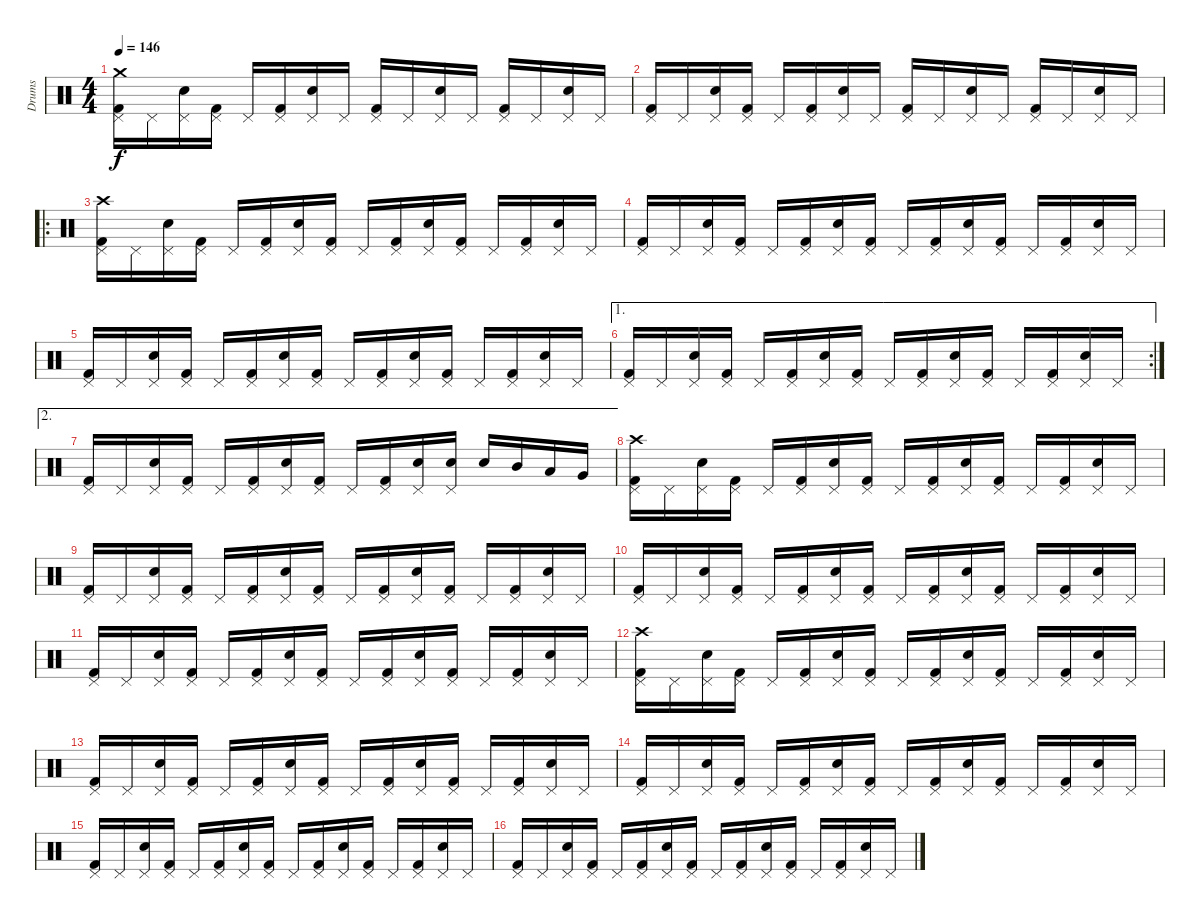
\track ("Drums" "Drums") {instrument percussion}
\staff {score}
\articulation defaults
\ts (4 4)
\tempo 146
\clef neutral
\ks c
("Kick (hit) 2" "Pedal Hi-Hat (hit)" "Crash medium (hit)").16{dy f} "Pedal Hi-Hat (hit)".16 ("Snare (hit) 2" "Pedal Hi-Hat (hit)").16 ("Kick (hit) 2" "Pedal Hi-Hat (hit)").16 "Pedal Hi-Hat (hit)".16 ("Kick (hit) 2" "Pedal Hi-Hat (hit)").16 ("Snare (hit) 2" "Pedal Hi-Hat (hit)").16 "Pedal Hi-Hat (hit)".16 ("Kick (hit) 2" "Pedal Hi-Hat (hit)").16 "Pedal Hi-Hat (hit)".16 ("Snare (hit) 2" "Pedal Hi-Hat (hit)").16 "Pedal Hi-Hat (hit)".16 ("Kick (hit) 2" "Pedal Hi-Hat (hit)").16 "Pedal Hi-Hat (hit)".16 ("Snare (hit) 2" "Pedal Hi-Hat (hit)").16 "Pedal Hi-Hat (hit)".16 |
("Kick (hit) 2" "Pedal Hi-Hat (hit)").16 "Pedal Hi-Hat (hit)".16 ("Snare (hit) 2" "Pedal Hi-Hat (hit)").16 ("Kick (hit) 2" "Pedal Hi-Hat (hit)").16 "Pedal Hi-Hat (hit)".16 ("Kick (hit) 2" "Pedal Hi-Hat (hit)").16 ("Snare (hit) 2" "Pedal Hi-Hat (hit)").16 "Pedal Hi-Hat (hit)".16 ("Kick (hit) 2" "Pedal Hi-Hat (hit)").16 "Pedal Hi-Hat (hit)".16 ("Snare (hit) 2" "Pedal Hi-Hat (hit)").16 "Pedal Hi-Hat (hit)".16 ("Kick (hit) 2" "Pedal Hi-Hat (hit)").16 "Pedal Hi-Hat (hit)".16 ("Snare (hit) 2" "Pedal Hi-Hat (hit)").16 "Pedal Hi-Hat (hit)".16 |
\ro
("Kick (hit) 2" "Pedal Hi-Hat (hit)" "Crash high (hit)").16 "Pedal Hi-Hat (hit)".16 ("Snare (hit) 2" "Pedal Hi-Hat (hit)").16 ("Kick (hit) 2" "Pedal Hi-Hat (hit)").16 "Pedal Hi-Hat (hit)".16 ("Kick (hit) 2" "Pedal Hi-Hat (hit)").16 ("Snare (hit) 2" "Pedal Hi-Hat (hit)").16 ("Kick (hit) 2" "Pedal Hi-Hat (hit)").16 "Pedal Hi-Hat (hit)".16 ("Kick (hit) 2" "Pedal Hi-Hat (hit)").16 ("Snare (hit) 2" "Pedal Hi-Hat (hit)").16 ("Kick (hit) 2" "Pedal Hi-Hat (hit)").16 "Pedal Hi-Hat (hit)".16 ("Kick (hit) 2" "Pedal Hi-Hat (hit)").16 ("Snare (hit) 2" "Pedal Hi-Hat (hit)").16 "Pedal Hi-Hat (hit)".16 |
("Kick (hit) 2" "Pedal Hi-Hat (hit)").16 "Pedal Hi-Hat (hit)".16 ("Snare (hit) 2" "Pedal Hi-Hat (hit)").16 ("Kick (hit) 2" "Pedal Hi-Hat (hit)").16 "Pedal Hi-Hat (hit)".16 ("Kick (hit) 2" "Pedal Hi-Hat (hit)").16 ("Snare (hit) 2" "Pedal Hi-Hat (hit)").16 ("Kick (hit) 2" "Pedal Hi-Hat (hit)").16 "Pedal Hi-Hat (hit)".16 ("Kick (hit) 2" "Pedal Hi-Hat (hit)").16 ("Snare (hit) 2" "Pedal Hi-Hat (hit)").16 ("Kick (hit) 2" "Pedal Hi-Hat (hit)").16 "Pedal Hi-Hat (hit)".16 ("Kick (hit) 2" "Pedal Hi-Hat (hit)").16 ("Snare (hit) 2" "Pedal Hi-Hat (hit)").16 "Pedal Hi-Hat (hit)".16 |
("Kick (hit) 2" "Pedal Hi-Hat (hit)").16 "Pedal Hi-Hat (hit)".16 ("Snare (hit) 2" "Pedal Hi-Hat (hit)").16 ("Kick (hit) 2" "Pedal Hi-Hat (hit)").16 "Pedal Hi-Hat (hit)".16 ("Kick (hit) 2" "Pedal Hi-Hat (hit)").16 ("Snare (hit) 2" "Pedal Hi-Hat (hit)").16 ("Kick (hit) 2" "Pedal Hi-Hat (hit)").16 "Pedal Hi-Hat (hit)".16 ("Kick (hit) 2" "Pedal Hi-Hat (hit)").16 ("Snare (hit) 2" "Pedal Hi-Hat (hit)").16 ("Kick (hit) 2" "Pedal Hi-Hat (hit)").16 "Pedal Hi-Hat (hit)".16 ("Kick (hit) 2" "Pedal Hi-Hat (hit)").16 ("Snare (hit) 2" "Pedal Hi-Hat (hit)").16 "Pedal Hi-Hat (hit)".16 |
\ae 1
\rc 2
("Kick (hit) 2" "Pedal Hi-Hat (hit)").16 "Pedal Hi-Hat (hit)".16 ("Snare (hit) 2" "Pedal Hi-Hat (hit)").16 ("Kick (hit) 2" "Pedal Hi-Hat (hit)").16 "Pedal Hi-Hat (hit)".16 ("Kick (hit) 2" "Pedal Hi-Hat (hit)").16 ("Snare (hit) 2" "Pedal Hi-Hat (hit)").16 ("Kick (hit) 2" "Pedal Hi-Hat (hit)").16 "Pedal Hi-Hat (hit)".16 ("Kick (hit) 2" "Pedal Hi-Hat (hit)").16 ("Snare (hit) 2" "Pedal Hi-Hat (hit)").16 ("Kick (hit) 2" "Pedal Hi-Hat (hit)").16 "Pedal Hi-Hat (hit)".16 ("Kick (hit) 2" "Pedal Hi-Hat (hit)").16 ("Snare (hit) 2" "Pedal Hi-Hat (hit)").16 "Pedal Hi-Hat (hit)".16 |
\ae 2
("Kick (hit) 2" "Pedal Hi-Hat (hit)").16 "Pedal Hi-Hat (hit)".16 ("Snare (hit) 2" "Pedal Hi-Hat (hit)").16 ("Kick (hit) 2" "Pedal Hi-Hat (hit)").16 "Pedal Hi-Hat (hit)".16 ("Kick (hit) 2" "Pedal Hi-Hat (hit)").16 ("Snare (hit) 2" "Pedal Hi-Hat (hit)").16 ("Kick (hit) 2" "Pedal Hi-Hat (hit)").16 "Pedal Hi-Hat (hit)".16 ("Kick (hit) 2" "Pedal Hi-Hat (hit)").16 ("Snare (hit) 2" "Pedal Hi-Hat (hit)").16 ("Snare (hit) 2" "Pedal Hi-Hat (hit)").16 "Snare (hit) 2".16 "Mid Tom (hit)".16 "Low Tom (hit)".16 "Very Low Tom (hit)".16 |
("Kick (hit) 2" "Pedal Hi-Hat (hit)" "Crash high (hit)").16 "Pedal Hi-Hat (hit)".16 ("Snare (hit) 2" "Pedal Hi-Hat (hit)").16 ("Kick (hit) 2" "Pedal Hi-Hat (hit)").16 "Pedal Hi-Hat (hit)".16 ("Kick (hit) 2" "Pedal Hi-Hat (hit)").16 ("Snare (hit) 2" "Pedal Hi-Hat (hit)").16 ("Kick (hit) 2" "Pedal Hi-Hat (hit)").16 "Pedal Hi-Hat (hit)".16 ("Kick (hit) 2" "Pedal Hi-Hat (hit)").16 ("Snare (hit) 2" "Pedal Hi-Hat (hit)").16 ("Kick (hit) 2" "Pedal Hi-Hat (hit)").16 "Pedal Hi-Hat (hit)".16 ("Kick (hit) 2" "Pedal Hi-Hat (hit)").16 ("Snare (hit) 2" "Pedal Hi-Hat (hit)").16 "Pedal Hi-Hat (hit)".16 |
("Kick (hit) 2" "Pedal Hi-Hat (hit)").16 "Pedal Hi-Hat (hit)".16 ("Snare (hit) 2" "Pedal Hi-Hat (hit)").16 ("Kick (hit) 2" "Pedal Hi-Hat (hit)").16 "Pedal Hi-Hat (hit)".16 ("Kick (hit) 2" "Pedal Hi-Hat (hit)").16 ("Snare (hit) 2" "Pedal Hi-Hat (hit)").16 ("Kick (hit) 2" "Pedal Hi-Hat (hit)").16 "Pedal Hi-Hat (hit)".16 ("Kick (hit) 2" "Pedal Hi-Hat (hit)").16 ("Snare (hit) 2" "Pedal Hi-Hat (hit)").16 ("Kick (hit) 2" "Pedal Hi-Hat (hit)").16 "Pedal Hi-Hat (hit)".16 ("Kick (hit) 2" "Pedal Hi-Hat (hit)").16 ("Snare (hit) 2" "Pedal Hi-Hat (hit)").16 "Pedal Hi-Hat (hit)".16 |
("Kick (hit) 2" "Pedal Hi-Hat (hit)").16 "Pedal Hi-Hat (hit)".16 ("Snare (hit) 2" "Pedal Hi-Hat (hit)").16 ("Kick (hit) 2" "Pedal Hi-Hat (hit)").16 "Pedal Hi-Hat (hit)".16 ("Kick (hit) 2" "Pedal Hi-Hat (hit)").16 ("Snare (hit) 2" "Pedal Hi-Hat (hit)").16 ("Kick (hit) 2" "Pedal Hi-Hat (hit)").16 "Pedal Hi-Hat (hit)".16 ("Kick (hit) 2" "Pedal Hi-Hat (hit)").16 ("Snare (hit) 2" "Pedal Hi-Hat (hit)").16 ("Kick (hit) 2" "Pedal Hi-Hat (hit)").16 "Pedal Hi-Hat (hit)".16 ("Kick (hit) 2" "Pedal Hi-Hat (hit)").16 ("Snare (hit) 2" "Pedal Hi-Hat (hit)").16 "Pedal Hi-Hat (hit)".16 |
("Kick (hit) 2" "Pedal Hi-Hat (hit)").16 "Pedal Hi-Hat (hit)".16 ("Snare (hit) 2" "Pedal Hi-Hat (hit)").16 ("Kick (hit) 2" "Pedal Hi-Hat (hit)").16 "Pedal Hi-Hat (hit)".16 ("Kick (hit) 2" "Pedal Hi-Hat (hit)").16 ("Snare (hit) 2" "Pedal Hi-Hat (hit)").16 ("Kick (hit) 2" "Pedal Hi-Hat (hit)").16 "Pedal Hi-Hat (hit)".16 ("Kick (hit) 2" "Pedal Hi-Hat (hit)").16 ("Snare (hit) 2" "Pedal Hi-Hat (hit)").16 ("Kick (hit) 2" "Pedal Hi-Hat (hit)").16 "Pedal Hi-Hat (hit)".16 ("Kick (hit) 2" "Pedal Hi-Hat (hit)").16 ("Snare (hit) 2" "Pedal Hi-Hat (hit)").16 "Pedal Hi-Hat (hit)".16 |
("Kick (hit) 2" "Pedal Hi-Hat (hit)" "Crash high (hit)").16 "Pedal Hi-Hat (hit)".16 ("Snare (hit) 2" "Pedal Hi-Hat (hit)").16 ("Kick (hit) 2" "Pedal Hi-Hat (hit)").16 "Pedal Hi-Hat (hit)".16 ("Kick (hit) 2" "Pedal Hi-Hat (hit)").16 ("Snare (hit) 2" "Pedal Hi-Hat (hit)").16 ("Kick (hit) 2" "Pedal Hi-Hat (hit)").16 "Pedal Hi-Hat (hit)".16 ("Kick (hit) 2" "Pedal Hi-Hat (hit)").16 ("Snare (hit) 2" "Pedal Hi-Hat (hit)").16 ("Kick (hit) 2" "Pedal Hi-Hat (hit)").16 "Pedal Hi-Hat (hit)".16 ("Kick (hit) 2" "Pedal Hi-Hat (hit)").16 ("Snare (hit) 2" "Pedal Hi-Hat (hit)").16 "Pedal Hi-Hat (hit)".16 |
("Kick (hit) 2" "Pedal Hi-Hat (hit)").16 "Pedal Hi-Hat (hit)".16 ("Snare (hit) 2" "Pedal Hi-Hat (hit)").16 ("Kick (hit) 2" "Pedal Hi-Hat (hit)").16 "Pedal Hi-Hat (hit)".16 ("Kick (hit) 2" "Pedal Hi-Hat (hit)").16 ("Snare (hit) 2" "Pedal Hi-Hat (hit)").16 ("Kick (hit) 2" "Pedal Hi-Hat (hit)").16 "Pedal Hi-Hat (hit)".16 ("Kick (hit) 2" "Pedal Hi-Hat (hit)").16 ("Snare (hit) 2" "Pedal Hi-Hat (hit)").16 ("Kick (hit) 2" "Pedal Hi-Hat (hit)").16 "Pedal Hi-Hat (hit)".16 ("Kick (hit) 2" "Pedal Hi-Hat (hit)").16 ("Snare (hit) 2" "Pedal Hi-Hat (hit)").16 "Pedal Hi-Hat (hit)".16 |
("Kick (hit) 2" "Pedal Hi-Hat (hit)").16 "Pedal Hi-Hat (hit)".16 ("Snare (hit) 2" "Pedal Hi-Hat (hit)").16 ("Kick (hit) 2" "Pedal Hi-Hat (hit)").16 "Pedal Hi-Hat (hit)".16 ("Kick (hit) 2" "Pedal Hi-Hat (hit)").16 ("Snare (hit) 2" "Pedal Hi-Hat (hit)").16 ("Kick (hit) 2" "Pedal Hi-Hat (hit)").16 "Pedal Hi-Hat (hit)".16 ("Kick (hit) 2" "Pedal Hi-Hat (hit)").16 ("Snare (hit) 2" "Pedal Hi-Hat (hit)").16 ("Kick (hit) 2" "Pedal Hi-Hat (hit)").16 "Pedal Hi-Hat (hit)".16 ("Kick (hit) 2" "Pedal Hi-Hat (hit)").16 ("Snare (hit) 2" "Pedal Hi-Hat (hit)").16 "Pedal Hi-Hat (hit)".16 |
("Kick (hit) 2" "Pedal Hi-Hat (hit)").16 "Pedal Hi-Hat (hit)".16 ("Snare (hit) 2" "Pedal Hi-Hat (hit)").16 ("Kick (hit) 2" "Pedal Hi-Hat (hit)").16 "Pedal Hi-Hat (hit)".16 ("Kick (hit) 2" "Pedal Hi-Hat (hit)").16 ("Snare (hit) 2" "Pedal Hi-Hat (hit)").16 ("Kick (hit) 2" "Pedal Hi-Hat (hit)").16 "Pedal Hi-Hat (hit)".16 ("Kick (hit) 2" "Pedal Hi-Hat (hit)").16 ("Snare (hit) 2" "Pedal Hi-Hat (hit)").16 ("Kick (hit) 2" "Pedal Hi-Hat (hit)").16 "Pedal Hi-Hat (hit)".16 ("Kick (hit) 2" "Pedal Hi-Hat (hit)").16 ("Snare (hit) 2" "Pedal Hi-Hat (hit)").16 "Pedal Hi-Hat (hit)".16 |
("Kick (hit) 2" "Pedal Hi-Hat (hit)").16 "Pedal Hi-Hat (hit)".16 ("Snare (hit) 2" "Pedal Hi-Hat (hit)").16 ("Kick (hit) 2" "Pedal Hi-Hat (hit)").16 "Pedal Hi-Hat (hit)".16 ("Kick (hit) 2" "Pedal Hi-Hat (hit)").16 ("Snare (hit) 2" "Pedal Hi-Hat (hit)").16 ("Kick (hit) 2" "Pedal Hi-Hat (hit)").16 "Pedal Hi-Hat (hit)".16 ("Kick (hit) 2" "Pedal Hi-Hat (hit)").16 ("Snare (hit) 2" "Pedal Hi-Hat (hit)").16 ("Kick (hit) 2" "Pedal Hi-Hat (hit)").16 "Pedal Hi-Hat (hit)".16 ("Kick (hit) 2" "Pedal Hi-Hat (hit)").16 ("Snare (hit) 2" "Pedal Hi-Hat (hit)").16 "Pedal Hi-Hat (hit)".16
